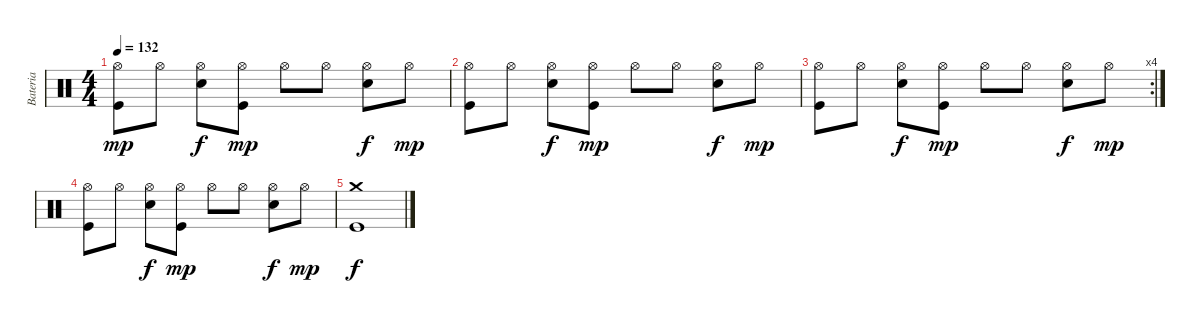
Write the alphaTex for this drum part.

\track ("Bateria" "Bateria") {instrument percussion}
\staff {score}
\articulation defaults
\ts (4 4)
\tempo 132
\clef neutral
\ks c
("Hi-Hat (open)" "Kick (hit)").8{dy mp} "Hi-Hat (open)".8 ("Hi-Hat (open)" "Electric Snare (hit)").8{dy f} ("Hi-Hat (open)" "Kick (hit)").8{dy mp} "Hi-Hat (open)".8 "Hi-Hat (open)".8 ("Hi-Hat (open)" "Electric Snare (hit)").8{dy f} "Hi-Hat (open)".8{dy mp} |
("Hi-Hat (open)" "Kick (hit)").8 "Hi-Hat (open)".8 ("Hi-Hat (open)" "Electric Snare (hit)").8{dy f} ("Hi-Hat (open)" "Kick (hit)").8{dy mp} "Hi-Hat (open)".8 "Hi-Hat (open)".8 ("Hi-Hat (open)" "Electric Snare (hit)").8{dy f} "Hi-Hat (open)".8{dy mp} |
\rc 4
("Hi-Hat (open)" "Kick (hit)").8 "Hi-Hat (open)".8 ("Hi-Hat (open)" "Electric Snare (hit)").8{dy f} ("Hi-Hat (open)" "Kick (hit)").8{dy mp} "Hi-Hat (open)".8 "Hi-Hat (open)".8 ("Hi-Hat (open)" "Electric Snare (hit)").8{dy f} "Hi-Hat (open)".8{dy mp} |
("Hi-Hat (open)" "Kick (hit)").8 "Hi-Hat (open)".8 ("Hi-Hat (open)" "Electric Snare (hit)").8{dy f} ("Hi-Hat (open)" "Kick (hit)").8{dy mp} "Hi-Hat (open)".8 "Hi-Hat (open)".8 ("Hi-Hat (open)" "Electric Snare (hit)").8{dy f} "Hi-Hat (open)".8{dy mp} |
("Crash medium (hit)" "Kick (hit)").1{dy f}
